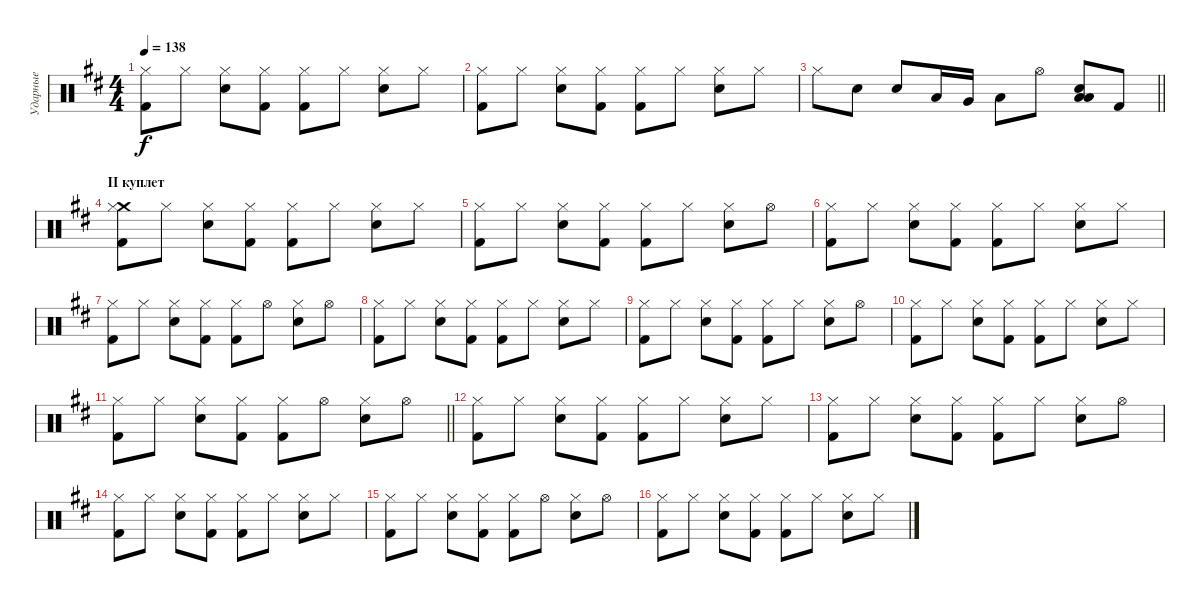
\track ("Ударные" "Ударные") {instrument percussion}
\staff {score}
\articulation defaults
\ts (4 4)
\tempo 138
\clef neutral
\ks bminor
("Kick (hit) 2" "Hi-Hat (closed)").8{dy f} "Hi-Hat (closed)".8 ("Electric Snare (hit)" "Hi-Hat (closed)").8 ("Kick (hit) 2" "Hi-Hat (closed)").8 ("Kick (hit) 2" "Hi-Hat (closed)").8 "Hi-Hat (closed)".8 ("Electric Snare (hit)" "Hi-Hat (closed)").8 "Hi-Hat (closed)".8 |
("Kick (hit) 2" "Hi-Hat (closed)").8 "Hi-Hat (closed)".8 ("Electric Snare (hit)" "Hi-Hat (closed)").8 ("Kick (hit) 2" "Hi-Hat (closed)").8 ("Kick (hit) 2" "Hi-Hat (closed)").8 "Hi-Hat (closed)".8 ("Electric Snare (hit)" "Hi-Hat (closed)").8 "Hi-Hat (closed)".8 |
\barLineRight lightlight "Hi-Hat (closed)".8 "Electric Snare (hit)".8 "Electric Snare (hit)".8 "Low Tom (hit)".16 "Very Low Tom (hit)".16 "Low Floor Tom (hit)".8 "Hi-Hat (open)".8
("Low Floor Tom (hit)" "Electric Snare (hit)" "Low Tom (hit)").8 "Kick (hit) 2".8 |
\section ("" "II куплет")
("Crash medium (hit)" "Kick (hit) 2" "Hi-Hat (closed)").8 "Hi-Hat (closed)".8 ("Electric Snare (hit)" "Hi-Hat (closed)").8 ("Kick (hit) 2" "Hi-Hat (closed)").8 ("Kick (hit) 2" "Hi-Hat (closed)").8 "Hi-Hat (closed)".8 ("Electric Snare (hit)" "Hi-Hat (closed)").8 "Hi-Hat (closed)".8 |
("Kick (hit) 2" "Hi-Hat (closed)").8 "Hi-Hat (closed)".8 ("Electric Snare (hit)" "Hi-Hat (closed)").8 ("Kick (hit) 2" "Hi-Hat (closed)").8 ("Kick (hit) 2" "Hi-Hat (closed)").8 "Hi-Hat (closed)".8 ("Electric Snare (hit)" "Hi-Hat (closed)").8 "Hi-Hat (open)".8 |
("Kick (hit) 2" "Hi-Hat (closed)").8 "Hi-Hat (closed)".8 ("Electric Snare (hit)" "Hi-Hat (closed)").8 ("Kick (hit) 2" "Hi-Hat (closed)").8 ("Kick (hit) 2" "Hi-Hat (closed)").8 "Hi-Hat (closed)".8 ("Electric Snare (hit)" "Hi-Hat (closed)").8 "Hi-Hat (closed)".8 |
("Kick (hit) 2" "Hi-Hat (closed)").8 "Hi-Hat (closed)".8 ("Electric Snare (hit)" "Hi-Hat (closed)").8 ("Kick (hit) 2" "Hi-Hat (closed)").8 ("Kick (hit) 2" "Hi-Hat (closed)").8 "Hi-Hat (open)".8 ("Electric Snare (hit)" "Hi-Hat (closed)").8 "Hi-Hat (open)".8 |
("Kick (hit) 2" "Hi-Hat (closed)").8 "Hi-Hat (closed)".8 ("Electric Snare (hit)" "Hi-Hat (closed)").8 ("Kick (hit) 2" "Hi-Hat (closed)").8 ("Kick (hit) 2" "Hi-Hat (closed)").8 "Hi-Hat (closed)".8 ("Electric Snare (hit)" "Hi-Hat (closed)").8 "Hi-Hat (closed)".8 |
("Kick (hit) 2" "Hi-Hat (closed)").8 "Hi-Hat (closed)".8 ("Electric Snare (hit)" "Hi-Hat (closed)").8 ("Kick (hit) 2" "Hi-Hat (closed)").8 ("Kick (hit) 2" "Hi-Hat (closed)").8 "Hi-Hat (closed)".8 ("Electric Snare (hit)" "Hi-Hat (closed)").8 "Hi-Hat (open)".8 |
("Kick (hit) 2" "Hi-Hat (closed)").8 "Hi-Hat (closed)".8 ("Electric Snare (hit)" "Hi-Hat (closed)").8 ("Kick (hit) 2" "Hi-Hat (closed)").8 ("Kick (hit) 2" "Hi-Hat (closed)").8 "Hi-Hat (closed)".8 ("Electric Snare (hit)" "Hi-Hat (closed)").8 "Hi-Hat (closed)".8 |
\barLineRight lightlight
("Kick (hit) 2" "Hi-Hat (closed)").8 "Hi-Hat (closed)".8 ("Electric Snare (hit)" "Hi-Hat (closed)").8 ("Kick (hit) 2" "Hi-Hat (closed)").8 ("Kick (hit) 2" "Hi-Hat (closed)").8 "Hi-Hat (open)".8 ("Electric Snare (hit)" "Hi-Hat (closed)").8 "Hi-Hat (open)".8 |
("Kick (hit) 2" "Hi-Hat (closed)").8 "Hi-Hat (closed)".8 ("Electric Snare (hit)" "Hi-Hat (closed)").8 ("Kick (hit) 2" "Hi-Hat (closed)").8 ("Kick (hit) 2" "Hi-Hat (closed)").8 "Hi-Hat (closed)".8 ("Electric Snare (hit)" "Hi-Hat (closed)").8 "Hi-Hat (closed)".8 |
("Kick (hit) 2" "Hi-Hat (closed)").8 "Hi-Hat (closed)".8 ("Electric Snare (hit)" "Hi-Hat (closed)").8 ("Kick (hit) 2" "Hi-Hat (closed)").8 ("Kick (hit) 2" "Hi-Hat (closed)").8 "Hi-Hat (closed)".8 ("Electric Snare (hit)" "Hi-Hat (closed)").8 "Hi-Hat (open)".8 |
("Kick (hit) 2" "Hi-Hat (closed)").8 "Hi-Hat (closed)".8 ("Electric Snare (hit)" "Hi-Hat (closed)").8 ("Kick (hit) 2" "Hi-Hat (closed)").8 ("Kick (hit) 2" "Hi-Hat (closed)").8 "Hi-Hat (closed)".8 ("Electric Snare (hit)" "Hi-Hat (closed)").8 "Hi-Hat (closed)".8 |
("Kick (hit) 2" "Hi-Hat (closed)").8 "Hi-Hat (closed)".8 ("Electric Snare (hit)" "Hi-Hat (closed)").8 ("Kick (hit) 2" "Hi-Hat (closed)").8 ("Kick (hit) 2" "Hi-Hat (closed)").8 "Hi-Hat (open)".8 ("Electric Snare (hit)" "Hi-Hat (closed)").8 "Hi-Hat (open)".8 |
("Kick (hit) 2" "Hi-Hat (closed)").8 "Hi-Hat (closed)".8 ("Electric Snare (hit)" "Hi-Hat (closed)").8 ("Kick (hit) 2" "Hi-Hat (closed)").8 ("Kick (hit) 2" "Hi-Hat (closed)").8 "Hi-Hat (closed)".8 ("Electric Snare (hit)" "Hi-Hat (closed)").8 "Hi-Hat (closed)".8
